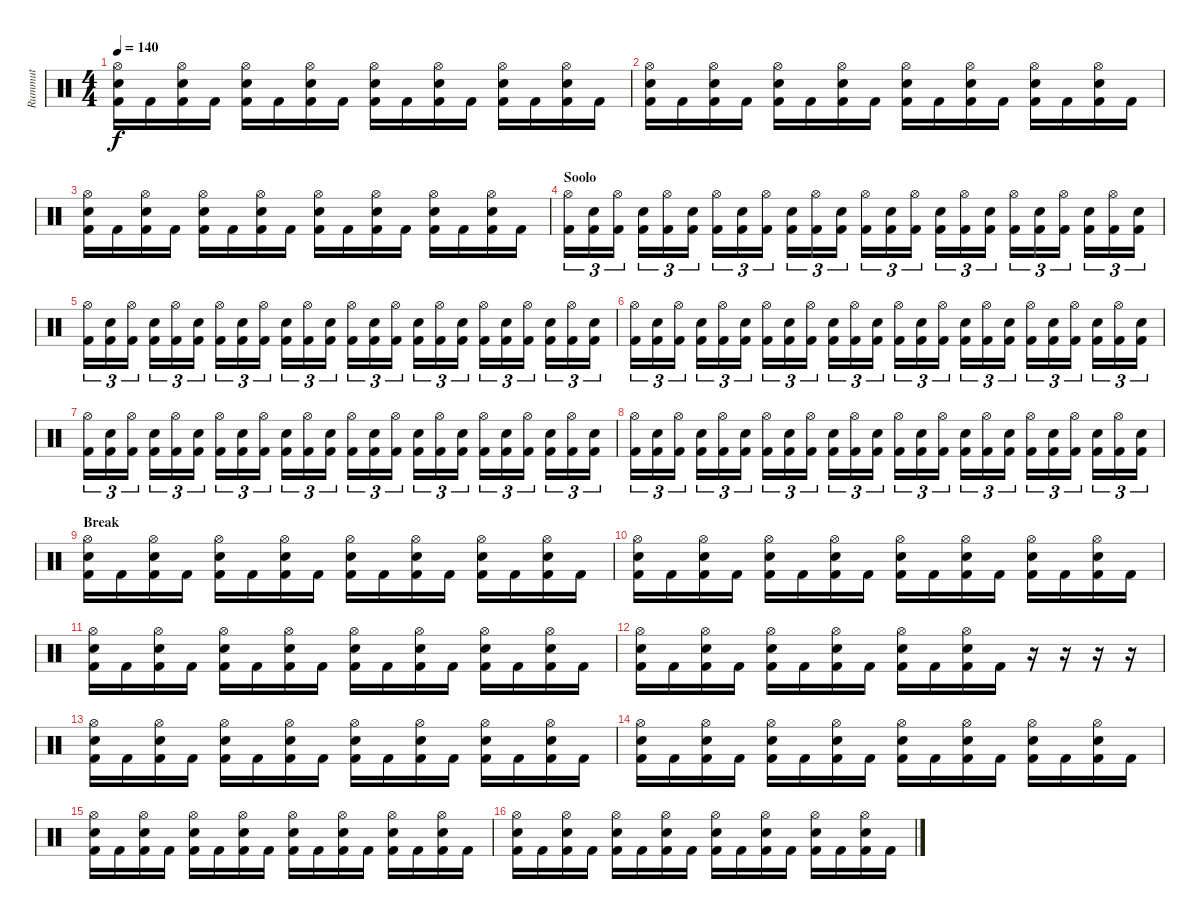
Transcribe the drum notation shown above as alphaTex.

\track ("Rummut" "Rummut") {instrument percussion}
\staff {score}
\articulation defaults
\ts (4 4)
\tempo 140
\clef neutral
\ks c
("Hi-Hat (open)" "Snare (hit) 2" "Kick (hit) 2").16{dy f} "Kick (hit) 2".16 ("Hi-Hat (open)" "Snare (hit) 2" "Kick (hit) 2").16 "Kick (hit) 2".16 ("Hi-Hat (open)" "Snare (hit) 2" "Kick (hit) 2").16 "Kick (hit) 2".16 ("Hi-Hat (open)" "Snare (hit) 2" "Kick (hit) 2").16 "Kick (hit) 2".16 ("Hi-Hat (open)" "Snare (hit) 2" "Kick (hit) 2").16 "Kick (hit) 2".16 ("Hi-Hat (open)" "Snare (hit) 2" "Kick (hit) 2").16 "Kick (hit) 2".16 ("Hi-Hat (open)" "Snare (hit) 2" "Kick (hit) 2").16 "Kick (hit) 2".16 ("Hi-Hat (open)" "Snare (hit) 2" "Kick (hit) 2").16 "Kick (hit) 2".16 |
("Hi-Hat (open)" "Snare (hit) 2" "Kick (hit) 2").16 "Kick (hit) 2".16 ("Hi-Hat (open)" "Snare (hit) 2" "Kick (hit) 2").16 "Kick (hit) 2".16 ("Hi-Hat (open)" "Snare (hit) 2" "Kick (hit) 2").16 "Kick (hit) 2".16 ("Hi-Hat (open)" "Snare (hit) 2" "Kick (hit) 2").16 "Kick (hit) 2".16 ("Hi-Hat (open)" "Snare (hit) 2" "Kick (hit) 2").16 "Kick (hit) 2".16 ("Hi-Hat (open)" "Snare (hit) 2" "Kick (hit) 2").16 "Kick (hit) 2".16 ("Hi-Hat (open)" "Snare (hit) 2" "Kick (hit) 2").16 "Kick (hit) 2".16 ("Hi-Hat (open)" "Snare (hit) 2" "Kick (hit) 2").16 "Kick (hit) 2".16 |
("Hi-Hat (open)" "Snare (hit) 2" "Kick (hit) 2").16 "Kick (hit) 2".16 ("Hi-Hat (open)" "Snare (hit) 2" "Kick (hit) 2").16 "Kick (hit) 2".16 ("Hi-Hat (open)" "Snare (hit) 2" "Kick (hit) 2").16 "Kick (hit) 2".16 ("Hi-Hat (open)" "Snare (hit) 2" "Kick (hit) 2").16 "Kick (hit) 2".16 ("Hi-Hat (open)" "Snare (hit) 2" "Kick (hit) 2").16 "Kick (hit) 2".16 ("Hi-Hat (open)" "Snare (hit) 2" "Kick (hit) 2").16 "Kick (hit) 2".16 ("Hi-Hat (open)" "Snare (hit) 2" "Kick (hit) 2").16 "Kick (hit) 2".16 ("Hi-Hat (open)" "Snare (hit) 2" "Kick (hit) 2").16 "Kick (hit) 2".16 |
\section ("" "Soolo")
("Hi-Hat (open)" "Kick (hit) 2").16{tu (3 2)} ("Snare (hit) 2" "Kick (hit) 2").16{tu (3 2)} ("Hi-Hat (open)" "Kick (hit) 2").16{tu (3 2)} ("Snare (hit) 2" "Kick (hit) 2").16{tu (3 2)} ("Hi-Hat (open)" "Kick (hit) 2").16{tu (3 2)} ("Snare (hit) 2" "Kick (hit) 2").16{tu (3 2)} ("Hi-Hat (open)" "Kick (hit) 2").16{tu (3 2)} ("Snare (hit) 2" "Kick (hit) 2").16{tu (3 2)} ("Hi-Hat (open)" "Kick (hit) 2").16{tu (3 2)} ("Snare (hit) 2" "Kick (hit) 2").16{tu (3 2)} ("Hi-Hat (open)" "Kick (hit) 2").16{tu (3 2)} ("Snare (hit) 2" "Kick (hit) 2").16{tu (3 2)} ("Hi-Hat (open)" "Kick (hit) 2").16{tu (3 2)} ("Snare (hit) 2" "Kick (hit) 2").16{tu (3 2)} ("Hi-Hat (open)" "Kick (hit) 2").16{tu (3 2)} ("Snare (hit) 2" "Kick (hit) 2").16{tu (3 2)} ("Hi-Hat (open)" "Kick (hit) 2").16{tu (3 2)} ("Snare (hit) 2" "Kick (hit) 2").16{tu (3 2)} ("Hi-Hat (open)" "Kick (hit) 2").16{tu (3 2)} ("Snare (hit) 2" "Kick (hit) 2").16{tu (3 2)} ("Hi-Hat (open)" "Kick (hit) 2").16{tu (3 2)} ("Snare (hit) 2" "Kick (hit) 2").16{tu (3 2)} ("Hi-Hat (open)" "Kick (hit) 2").16{tu (3 2)} ("Snare (hit) 2" "Kick (hit) 2").16{tu (3 2)} |
("Hi-Hat (open)" "Kick (hit) 2").16{tu (3 2)} ("Snare (hit) 2" "Kick (hit) 2").16{tu (3 2)} ("Hi-Hat (open)" "Kick (hit) 2").16{tu (3 2)} ("Snare (hit) 2" "Kick (hit) 2").16{tu (3 2)} ("Hi-Hat (open)" "Kick (hit) 2").16{tu (3 2)} ("Snare (hit) 2" "Kick (hit) 2").16{tu (3 2)} ("Hi-Hat (open)" "Kick (hit) 2").16{tu (3 2)} ("Snare (hit) 2" "Kick (hit) 2").16{tu (3 2)} ("Hi-Hat (open)" "Kick (hit) 2").16{tu (3 2)} ("Snare (hit) 2" "Kick (hit) 2").16{tu (3 2)} ("Hi-Hat (open)" "Kick (hit) 2").16{tu (3 2)} ("Snare (hit) 2" "Kick (hit) 2").16{tu (3 2)} ("Hi-Hat (open)" "Kick (hit) 2").16{tu (3 2)} ("Snare (hit) 2" "Kick (hit) 2").16{tu (3 2)} ("Hi-Hat (open)" "Kick (hit) 2").16{tu (3 2)} ("Snare (hit) 2" "Kick (hit) 2").16{tu (3 2)} ("Hi-Hat (open)" "Kick (hit) 2").16{tu (3 2)} ("Snare (hit) 2" "Kick (hit) 2").16{tu (3 2)} ("Hi-Hat (open)" "Kick (hit) 2").16{tu (3 2)} ("Snare (hit) 2" "Kick (hit) 2").16{tu (3 2)} ("Hi-Hat (open)" "Kick (hit) 2").16{tu (3 2)} ("Snare (hit) 2" "Kick (hit) 2").16{tu (3 2)} ("Hi-Hat (open)" "Kick (hit) 2").16{tu (3 2)} ("Snare (hit) 2" "Kick (hit) 2").16{tu (3 2)} |
("Hi-Hat (open)" "Kick (hit) 2").16{tu (3 2)} ("Snare (hit) 2" "Kick (hit) 2").16{tu (3 2)} ("Hi-Hat (open)" "Kick (hit) 2").16{tu (3 2)} ("Snare (hit) 2" "Kick (hit) 2").16{tu (3 2)} ("Hi-Hat (open)" "Kick (hit) 2").16{tu (3 2)} ("Snare (hit) 2" "Kick (hit) 2").16{tu (3 2)} ("Hi-Hat (open)" "Kick (hit) 2").16{tu (3 2)} ("Snare (hit) 2" "Kick (hit) 2").16{tu (3 2)} ("Hi-Hat (open)" "Kick (hit) 2").16{tu (3 2)} ("Snare (hit) 2" "Kick (hit) 2").16{tu (3 2)} ("Hi-Hat (open)" "Kick (hit) 2").16{tu (3 2)} ("Snare (hit) 2" "Kick (hit) 2").16{tu (3 2)} ("Hi-Hat (open)" "Kick (hit) 2").16{tu (3 2)} ("Snare (hit) 2" "Kick (hit) 2").16{tu (3 2)} ("Hi-Hat (open)" "Kick (hit) 2").16{tu (3 2)} ("Snare (hit) 2" "Kick (hit) 2").16{tu (3 2)} ("Hi-Hat (open)" "Kick (hit) 2").16{tu (3 2)} ("Snare (hit) 2" "Kick (hit) 2").16{tu (3 2)} ("Hi-Hat (open)" "Kick (hit) 2").16{tu (3 2)} ("Snare (hit) 2" "Kick (hit) 2").16{tu (3 2)} ("Hi-Hat (open)" "Kick (hit) 2").16{tu (3 2)} ("Snare (hit) 2" "Kick (hit) 2").16{tu (3 2)} ("Hi-Hat (open)" "Kick (hit) 2").16{tu (3 2)} ("Snare (hit) 2" "Kick (hit) 2").16{tu (3 2)} |
("Hi-Hat (open)" "Kick (hit) 2").16{tu (3 2)} ("Snare (hit) 2" "Kick (hit) 2").16{tu (3 2)} ("Hi-Hat (open)" "Kick (hit) 2").16{tu (3 2)} ("Snare (hit) 2" "Kick (hit) 2").16{tu (3 2)} ("Hi-Hat (open)" "Kick (hit) 2").16{tu (3 2)} ("Snare (hit) 2" "Kick (hit) 2").16{tu (3 2)} ("Hi-Hat (open)" "Kick (hit) 2").16{tu (3 2)} ("Snare (hit) 2" "Kick (hit) 2").16{tu (3 2)} ("Hi-Hat (open)" "Kick (hit) 2").16{tu (3 2)} ("Snare (hit) 2" "Kick (hit) 2").16{tu (3 2)} ("Hi-Hat (open)" "Kick (hit) 2").16{tu (3 2)} ("Snare (hit) 2" "Kick (hit) 2").16{tu (3 2)} ("Hi-Hat (open)" "Kick (hit) 2").16{tu (3 2)} ("Snare (hit) 2" "Kick (hit) 2").16{tu (3 2)} ("Hi-Hat (open)" "Kick (hit) 2").16{tu (3 2)} ("Snare (hit) 2" "Kick (hit) 2").16{tu (3 2)} ("Hi-Hat (open)" "Kick (hit) 2").16{tu (3 2)} ("Snare (hit) 2" "Kick (hit) 2").16{tu (3 2)} ("Hi-Hat (open)" "Kick (hit) 2").16{tu (3 2)} ("Snare (hit) 2" "Kick (hit) 2").16{tu (3 2)} ("Hi-Hat (open)" "Kick (hit) 2").16{tu (3 2)} ("Snare (hit) 2" "Kick (hit) 2").16{tu (3 2)} ("Hi-Hat (open)" "Kick (hit) 2").16{tu (3 2)} ("Snare (hit) 2" "Kick (hit) 2").16{tu (3 2)} |
("Hi-Hat (open)" "Kick (hit) 2").16{tu (3 2)} ("Snare (hit) 2" "Kick (hit) 2").16{tu (3 2)} ("Hi-Hat (open)" "Kick (hit) 2").16{tu (3 2)} ("Snare (hit) 2" "Kick (hit) 2").16{tu (3 2)} ("Hi-Hat (open)" "Kick (hit) 2").16{tu (3 2)} ("Snare (hit) 2" "Kick (hit) 2").16{tu (3 2)} ("Hi-Hat (open)" "Kick (hit) 2").16{tu (3 2)} ("Snare (hit) 2" "Kick (hit) 2").16{tu (3 2)} ("Hi-Hat (open)" "Kick (hit) 2").16{tu (3 2)} ("Snare (hit) 2" "Kick (hit) 2").16{tu (3 2)} ("Hi-Hat (open)" "Kick (hit) 2").16{tu (3 2)} ("Snare (hit) 2" "Kick (hit) 2").16{tu (3 2)} ("Hi-Hat (open)" "Kick (hit) 2").16{tu (3 2)} ("Snare (hit) 2" "Kick (hit) 2").16{tu (3 2)} ("Hi-Hat (open)" "Kick (hit) 2").16{tu (3 2)} ("Snare (hit) 2" "Kick (hit) 2").16{tu (3 2)} ("Hi-Hat (open)" "Kick (hit) 2").16{tu (3 2)} ("Snare (hit) 2" "Kick (hit) 2").16{tu (3 2)} ("Hi-Hat (open)" "Kick (hit) 2").16{tu (3 2)} ("Snare (hit) 2" "Kick (hit) 2").16{tu (3 2)} ("Hi-Hat (open)" "Kick (hit) 2").16{tu (3 2)} ("Snare (hit) 2" "Kick (hit) 2").16{tu (3 2)} ("Hi-Hat (open)" "Kick (hit) 2").16{tu (3 2)} ("Snare (hit) 2" "Kick (hit) 2").16{tu (3 2)} |
\section ("" "Break")
("Hi-Hat (open)" "Snare (hit) 2" "Kick (hit) 2").16 "Kick (hit) 2".16 ("Hi-Hat (open)" "Snare (hit) 2" "Kick (hit) 2").16 "Kick (hit) 2".16 ("Hi-Hat (open)" "Snare (hit) 2" "Kick (hit) 2").16 "Kick (hit) 2".16 ("Hi-Hat (open)" "Snare (hit) 2" "Kick (hit) 2").16 "Kick (hit) 2".16 ("Hi-Hat (open)" "Snare (hit) 2" "Kick (hit) 2").16 "Kick (hit) 2".16 ("Hi-Hat (open)" "Snare (hit) 2" "Kick (hit) 2").16 "Kick (hit) 2".16 ("Hi-Hat (open)" "Snare (hit) 2" "Kick (hit) 2").16 "Kick (hit) 2".16 ("Hi-Hat (open)" "Snare (hit) 2" "Kick (hit) 2").16 "Kick (hit) 2".16 |
("Hi-Hat (open)" "Snare (hit) 2" "Kick (hit) 2").16 "Kick (hit) 2".16 ("Hi-Hat (open)" "Snare (hit) 2" "Kick (hit) 2").16 "Kick (hit) 2".16 ("Hi-Hat (open)" "Snare (hit) 2" "Kick (hit) 2").16 "Kick (hit) 2".16 ("Hi-Hat (open)" "Snare (hit) 2" "Kick (hit) 2").16 "Kick (hit) 2".16 ("Hi-Hat (open)" "Snare (hit) 2" "Kick (hit) 2").16 "Kick (hit) 2".16 ("Hi-Hat (open)" "Snare (hit) 2" "Kick (hit) 2").16 "Kick (hit) 2".16 ("Hi-Hat (open)" "Snare (hit) 2" "Kick (hit) 2").16 "Kick (hit) 2".16 ("Hi-Hat (open)" "Snare (hit) 2" "Kick (hit) 2").16 "Kick (hit) 2".16 |
("Hi-Hat (open)" "Snare (hit) 2" "Kick (hit) 2").16 "Kick (hit) 2".16 ("Hi-Hat (open)" "Snare (hit) 2" "Kick (hit) 2").16 "Kick (hit) 2".16 ("Hi-Hat (open)" "Snare (hit) 2" "Kick (hit) 2").16 "Kick (hit) 2".16 ("Hi-Hat (open)" "Snare (hit) 2" "Kick (hit) 2").16 "Kick (hit) 2".16 ("Hi-Hat (open)" "Snare (hit) 2" "Kick (hit) 2").16 "Kick (hit) 2".16 ("Hi-Hat (open)" "Snare (hit) 2" "Kick (hit) 2").16 "Kick (hit) 2".16 ("Hi-Hat (open)" "Snare (hit) 2" "Kick (hit) 2").16 "Kick (hit) 2".16 ("Hi-Hat (open)" "Snare (hit) 2" "Kick (hit) 2").16 "Kick (hit) 2".16 |
("Hi-Hat (open)" "Snare (hit) 2" "Kick (hit) 2").16 "Kick (hit) 2".16 ("Hi-Hat (open)" "Snare (hit) 2" "Kick (hit) 2").16 "Kick (hit) 2".16 ("Hi-Hat (open)" "Snare (hit) 2" "Kick (hit) 2").16 "Kick (hit) 2".16 ("Hi-Hat (open)" "Snare (hit) 2" "Kick (hit) 2").16 "Kick (hit) 2".16 ("Hi-Hat (open)" "Snare (hit) 2" "Kick (hit) 2").16 "Kick (hit) 2".16 ("Hi-Hat (open)" "Snare (hit) 2" "Kick (hit) 2").16 "Kick (hit) 2".16 r.16 r.16 r.16 r.16 |
("Hi-Hat (open)" "Snare (hit) 2" "Kick (hit) 2").16 "Kick (hit) 2".16 ("Hi-Hat (open)" "Snare (hit) 2" "Kick (hit) 2").16 "Kick (hit) 2".16 ("Hi-Hat (open)" "Snare (hit) 2" "Kick (hit) 2").16 "Kick (hit) 2".16 ("Hi-Hat (open)" "Snare (hit) 2" "Kick (hit) 2").16 "Kick (hit) 2".16 ("Hi-Hat (open)" "Snare (hit) 2" "Kick (hit) 2").16 "Kick (hit) 2".16 ("Hi-Hat (open)" "Snare (hit) 2" "Kick (hit) 2").16 "Kick (hit) 2".16 ("Hi-Hat (open)" "Snare (hit) 2" "Kick (hit) 2").16 "Kick (hit) 2".16 ("Hi-Hat (open)" "Snare (hit) 2" "Kick (hit) 2").16 "Kick (hit) 2".16 |
("Hi-Hat (open)" "Snare (hit) 2" "Kick (hit) 2").16 "Kick (hit) 2".16 ("Hi-Hat (open)" "Snare (hit) 2" "Kick (hit) 2").16 "Kick (hit) 2".16 ("Hi-Hat (open)" "Snare (hit) 2" "Kick (hit) 2").16 "Kick (hit) 2".16 ("Hi-Hat (open)" "Snare (hit) 2" "Kick (hit) 2").16 "Kick (hit) 2".16 ("Hi-Hat (open)" "Snare (hit) 2" "Kick (hit) 2").16 "Kick (hit) 2".16 ("Hi-Hat (open)" "Snare (hit) 2" "Kick (hit) 2").16 "Kick (hit) 2".16 ("Hi-Hat (open)" "Snare (hit) 2" "Kick (hit) 2").16 "Kick (hit) 2".16 ("Hi-Hat (open)" "Snare (hit) 2" "Kick (hit) 2").16 "Kick (hit) 2".16 |
("Hi-Hat (open)" "Snare (hit) 2" "Kick (hit) 2").16 "Kick (hit) 2".16 ("Hi-Hat (open)" "Snare (hit) 2" "Kick (hit) 2").16 "Kick (hit) 2".16 ("Hi-Hat (open)" "Snare (hit) 2" "Kick (hit) 2").16 "Kick (hit) 2".16 ("Hi-Hat (open)" "Snare (hit) 2" "Kick (hit) 2").16 "Kick (hit) 2".16 ("Hi-Hat (open)" "Snare (hit) 2" "Kick (hit) 2").16 "Kick (hit) 2".16 ("Hi-Hat (open)" "Snare (hit) 2" "Kick (hit) 2").16 "Kick (hit) 2".16 ("Hi-Hat (open)" "Snare (hit) 2" "Kick (hit) 2").16 "Kick (hit) 2".16 ("Hi-Hat (open)" "Snare (hit) 2" "Kick (hit) 2").16 "Kick (hit) 2".16 |
("Hi-Hat (open)" "Snare (hit) 2" "Kick (hit) 2").16 "Kick (hit) 2".16 ("Hi-Hat (open)" "Snare (hit) 2" "Kick (hit) 2").16 "Kick (hit) 2".16 ("Hi-Hat (open)" "Snare (hit) 2" "Kick (hit) 2").16 "Kick (hit) 2".16 ("Hi-Hat (open)" "Snare (hit) 2" "Kick (hit) 2").16 "Kick (hit) 2".16 ("Hi-Hat (open)" "Snare (hit) 2" "Kick (hit) 2").16 "Kick (hit) 2".16 ("Hi-Hat (open)" "Snare (hit) 2" "Kick (hit) 2").16 "Kick (hit) 2".16 ("Hi-Hat (open)" "Snare (hit) 2" "Kick (hit) 2").16 "Kick (hit) 2".16 ("Hi-Hat (open)" "Snare (hit) 2" "Kick (hit) 2").16 "Kick (hit) 2".16
